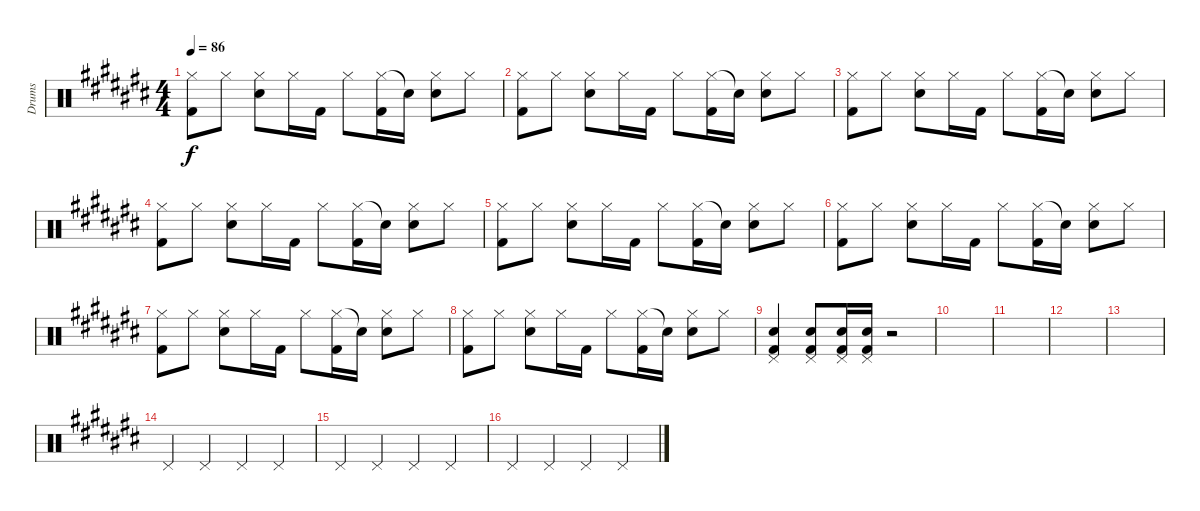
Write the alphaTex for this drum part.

\track ("Drums" "Drums") {instrument percussion}
\staff {score}
\articulation defaults
\ts (4 4)
\tempo 86
\clef neutral
\ks c#
("Hi-Hat (closed)" "Kick (hit) 2").8{dy f} "Hi-Hat (closed)".8 ("Hi-Hat (closed)" "Electric Snare (hit)").8 "Hi-Hat (closed)".16 "Kick (hit) 2".16 "Hi-Hat (closed)".8 ("Hi-Hat (closed)" "Kick (hit) 2").16 "Snare (hit)"{t}.16 ("Hi-Hat (closed)" "Electric Snare (hit)").8 "Hi-Hat (closed)".8 |
("Hi-Hat (closed)" "Kick (hit) 2").8 "Hi-Hat (closed)".8 ("Hi-Hat (closed)" "Electric Snare (hit)").8 "Hi-Hat (closed)".16 "Kick (hit) 2".16 "Hi-Hat (closed)".8 ("Hi-Hat (closed)" "Kick (hit) 2").16 "Snare (hit)"{t}.16 ("Hi-Hat (closed)" "Electric Snare (hit)").8 "Hi-Hat (closed)".8 |
("Hi-Hat (closed)" "Kick (hit) 2").8 "Hi-Hat (closed)".8 ("Hi-Hat (closed)" "Electric Snare (hit)").8 "Hi-Hat (closed)".16 "Kick (hit) 2".16 "Hi-Hat (closed)".8 ("Hi-Hat (closed)" "Kick (hit) 2").16 "Snare (hit)"{t}.16 ("Hi-Hat (closed)" "Electric Snare (hit)").8 "Hi-Hat (closed)".8 |
("Hi-Hat (closed)" "Kick (hit) 2").8 "Hi-Hat (closed)".8 ("Hi-Hat (closed)" "Electric Snare (hit)").8 "Hi-Hat (closed)".16 "Kick (hit) 2".16 "Hi-Hat (closed)".8 ("Hi-Hat (closed)" "Kick (hit) 2").16 "Snare (hit)"{t}.16 ("Hi-Hat (closed)" "Electric Snare (hit)").8 "Hi-Hat (closed)".8 |
("Hi-Hat (closed)" "Kick (hit) 2").8 "Hi-Hat (closed)".8 ("Hi-Hat (closed)" "Electric Snare (hit)").8 "Hi-Hat (closed)".16 "Kick (hit) 2".16 "Hi-Hat (closed)".8 ("Hi-Hat (closed)" "Kick (hit) 2").16 "Snare (hit)"{t}.16 ("Hi-Hat (closed)" "Electric Snare (hit)").8 "Hi-Hat (closed)".8 |
("Hi-Hat (closed)" "Kick (hit) 2").8 "Hi-Hat (closed)".8 ("Hi-Hat (closed)" "Electric Snare (hit)").8 "Hi-Hat (closed)".16 "Kick (hit) 2".16 "Hi-Hat (closed)".8 ("Hi-Hat (closed)" "Kick (hit) 2").16 "Snare (hit)"{t}.16 ("Hi-Hat (closed)" "Electric Snare (hit)").8 "Hi-Hat (closed)".8 |
("Hi-Hat (closed)" "Kick (hit) 2").8 "Hi-Hat (closed)".8 ("Hi-Hat (closed)" "Electric Snare (hit)").8 "Hi-Hat (closed)".16 "Kick (hit) 2".16 "Hi-Hat (closed)".8 ("Hi-Hat (closed)" "Kick (hit) 2").16 "Snare (hit)"{t}.16 ("Hi-Hat (closed)" "Electric Snare (hit)").8 "Hi-Hat (closed)".8 |
("Hi-Hat (closed)" "Kick (hit) 2").8 "Hi-Hat (closed)".8 ("Hi-Hat (closed)" "Electric Snare (hit)").8 "Hi-Hat (closed)".16 "Kick (hit) 2".16 "Hi-Hat (closed)".8 ("Hi-Hat (closed)" "Kick (hit) 2").16 "Snare (hit)"{t}.16 ("Hi-Hat (closed)" "Electric Snare (hit)").8 "Hi-Hat (closed)".8 |
("Electric Snare (hit)" "Pedal Hi-Hat (hit)" "Kick (hit) 2").4 ("Electric Snare (hit)" "Pedal Hi-Hat (hit)" "Kick (hit) 2").8 ("Electric Snare (hit)" "Pedal Hi-Hat (hit)" "Kick (hit) 2").16 ("Electric Snare (hit)" "Pedal Hi-Hat (hit)" "Kick (hit) 2").16 r.2 |
|
|
|
|
"Pedal Hi-Hat (hit)".4 "Pedal Hi-Hat (hit)".4 "Pedal Hi-Hat (hit)".4 "Pedal Hi-Hat (hit)".4 |
"Pedal Hi-Hat (hit)".4 "Pedal Hi-Hat (hit)".4 "Pedal Hi-Hat (hit)".4 "Pedal Hi-Hat (hit)".4 |
"Pedal Hi-Hat (hit)".4 "Pedal Hi-Hat (hit)".4 "Pedal Hi-Hat (hit)".4 "Pedal Hi-Hat (hit)".4
